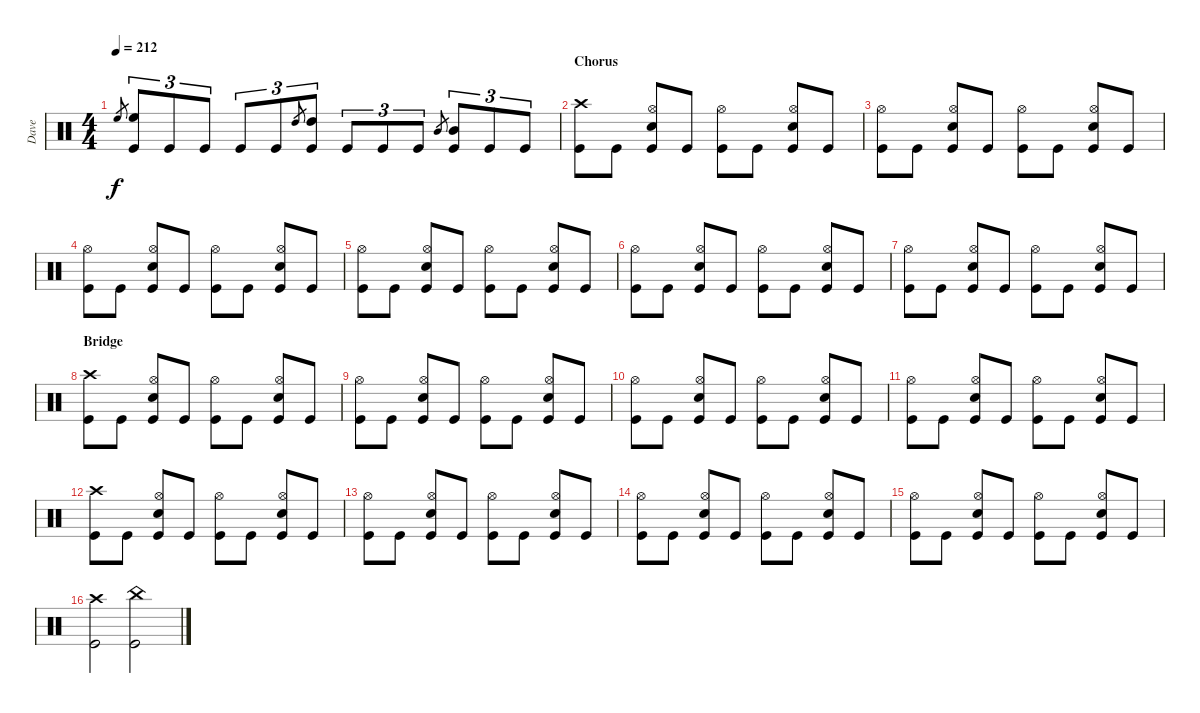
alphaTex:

\track ("Dave" "Dave") {instrument percussion}
\staff {score}
\articulation defaults
\ts (4 4)
\tempo 212
\clef neutral
\ks c "High Floor Tom (hit)".8{gr dy f}
("High Floor Tom (hit)" "Kick (hit)").8{tu (3 2)} "Kick (hit)".8{tu (3 2)} "Kick (hit)".8{tu (3 2)} "Kick (hit)".8{tu (3 2)} "Kick (hit)".8{tu (3 2)} "High Tom (hit)".8{gr} ("High Tom (hit)" "Kick (hit)").8{tu (3 2)} "Kick (hit)".8{tu (3 2)} "Kick (hit)".8{tu (3 2)} "Kick (hit)".8{tu (3 2)} "Mid Tom (hit)".8{gr} ("Mid Tom (hit)" "Kick (hit)").8{tu (3 2)} "Kick (hit)".8{tu (3 2)} "Kick (hit)".8{tu (3 2)} |
\section ("" "Chorus")
("Crash high (hit)" "Kick (hit)").8 "Kick (hit)".8 ("Hi-Hat (open)" "Snare (hit) 2" "Kick (hit)").8 "Kick (hit)".8 ("Hi-Hat (open)" "Kick (hit)").8 "Kick (hit)".8 ("Hi-Hat (open)" "Snare (hit) 2" "Kick (hit)").8 "Kick (hit)".8 |
("Hi-Hat (open)" "Kick (hit)").8 "Kick (hit)".8 ("Hi-Hat (open)" "Snare (hit) 2" "Kick (hit)").8 "Kick (hit)".8 ("Hi-Hat (open)" "Kick (hit)").8 "Kick (hit)".8 ("Hi-Hat (open)" "Snare (hit) 2" "Kick (hit)").8 "Kick (hit)".8 |
("Hi-Hat (open)" "Kick (hit)").8 "Kick (hit)".8 ("Hi-Hat (open)" "Snare (hit) 2" "Kick (hit)").8 "Kick (hit)".8 ("Hi-Hat (open)" "Kick (hit)").8 "Kick (hit)".8 ("Hi-Hat (open)" "Snare (hit) 2" "Kick (hit)").8 "Kick (hit)".8 |
("Hi-Hat (open)" "Kick (hit)").8 "Kick (hit)".8 ("Hi-Hat (open)" "Snare (hit) 2" "Kick (hit)").8 "Kick (hit)".8 ("Hi-Hat (open)" "Kick (hit)").8 "Kick (hit)".8 ("Hi-Hat (open)" "Snare (hit) 2" "Kick (hit)").8 "Kick (hit)".8 |
("Hi-Hat (open)" "Kick (hit)").8 "Kick (hit)".8 ("Hi-Hat (open)" "Snare (hit) 2" "Kick (hit)").8 "Kick (hit)".8 ("Hi-Hat (open)" "Kick (hit)").8 "Kick (hit)".8 ("Hi-Hat (open)" "Snare (hit) 2" "Kick (hit)").8 "Kick (hit)".8 |
("Hi-Hat (open)" "Kick (hit)").8 "Kick (hit)".8 ("Hi-Hat (open)" "Snare (hit) 2" "Kick (hit)").8 "Kick (hit)".8 ("Hi-Hat (open)" "Kick (hit)").8 "Kick (hit)".8 ("Hi-Hat (open)" "Snare (hit) 2" "Kick (hit)").8 "Kick (hit)".8 |
\section ("" "Bridge")
("Crash high (hit)" "Kick (hit)").8 "Kick (hit)".8 ("Hi-Hat (open)" "Snare (hit) 2" "Kick (hit)").8 "Kick (hit)".8 ("Hi-Hat (open)" "Kick (hit)").8 "Kick (hit)".8 ("Hi-Hat (open)" "Snare (hit) 2" "Kick (hit)").8 "Kick (hit)".8 |
("Hi-Hat (open)" "Kick (hit)").8 "Kick (hit)".8 ("Hi-Hat (open)" "Snare (hit) 2" "Kick (hit)").8 "Kick (hit)".8 ("Hi-Hat (open)" "Kick (hit)").8 "Kick (hit)".8 ("Hi-Hat (open)" "Snare (hit) 2" "Kick (hit)").8 "Kick (hit)".8 |
("Hi-Hat (open)" "Kick (hit)").8 "Kick (hit)".8 ("Hi-Hat (open)" "Snare (hit) 2" "Kick (hit)").8 "Kick (hit)".8 ("Hi-Hat (open)" "Kick (hit)").8 "Kick (hit)".8 ("Hi-Hat (open)" "Snare (hit) 2" "Kick (hit)").8 "Kick (hit)".8 |
("Hi-Hat (open)" "Kick (hit)").8 "Kick (hit)".8 ("Hi-Hat (open)" "Snare (hit) 2" "Kick (hit)").8 "Kick (hit)".8 ("Hi-Hat (open)" "Kick (hit)").8 "Kick (hit)".8 ("Hi-Hat (open)" "Snare (hit) 2" "Kick (hit)").8 "Kick (hit)".8 |
("Crash high (hit)" "Kick (hit)").8 "Kick (hit)".8 ("Hi-Hat (open)" "Snare (hit) 2" "Kick (hit)").8 "Kick (hit)".8 ("Hi-Hat (open)" "Kick (hit)").8 "Kick (hit)".8 ("Hi-Hat (open)" "Snare (hit) 2" "Kick (hit)").8 "Kick (hit)".8 |
("Hi-Hat (open)" "Kick (hit)").8 "Kick (hit)".8 ("Hi-Hat (open)" "Snare (hit) 2" "Kick (hit)").8 "Kick (hit)".8 ("Hi-Hat (open)" "Kick (hit)").8 "Kick (hit)".8 ("Hi-Hat (open)" "Snare (hit) 2" "Kick (hit)").8 "Kick (hit)".8 |
("Hi-Hat (open)" "Kick (hit)").8 "Kick (hit)".8 ("Hi-Hat (open)" "Snare (hit) 2" "Kick (hit)").8 "Kick (hit)".8 ("Hi-Hat (open)" "Kick (hit)").8 "Kick (hit)".8 ("Hi-Hat (open)" "Snare (hit) 2" "Kick (hit)").8 "Kick (hit)".8 |
("Hi-Hat (open)" "Kick (hit)").8 "Kick (hit)".8 ("Hi-Hat (open)" "Snare (hit) 2" "Kick (hit)").8 "Kick (hit)".8 ("Hi-Hat (open)" "Kick (hit)").8 "Kick (hit)".8 ("Hi-Hat (open)" "Snare (hit) 2" "Kick (hit)").8 "Kick (hit)".8 |
("Crash high (hit)" "Kick (hit)").2 ("China (hit)" "Kick (hit)").2
